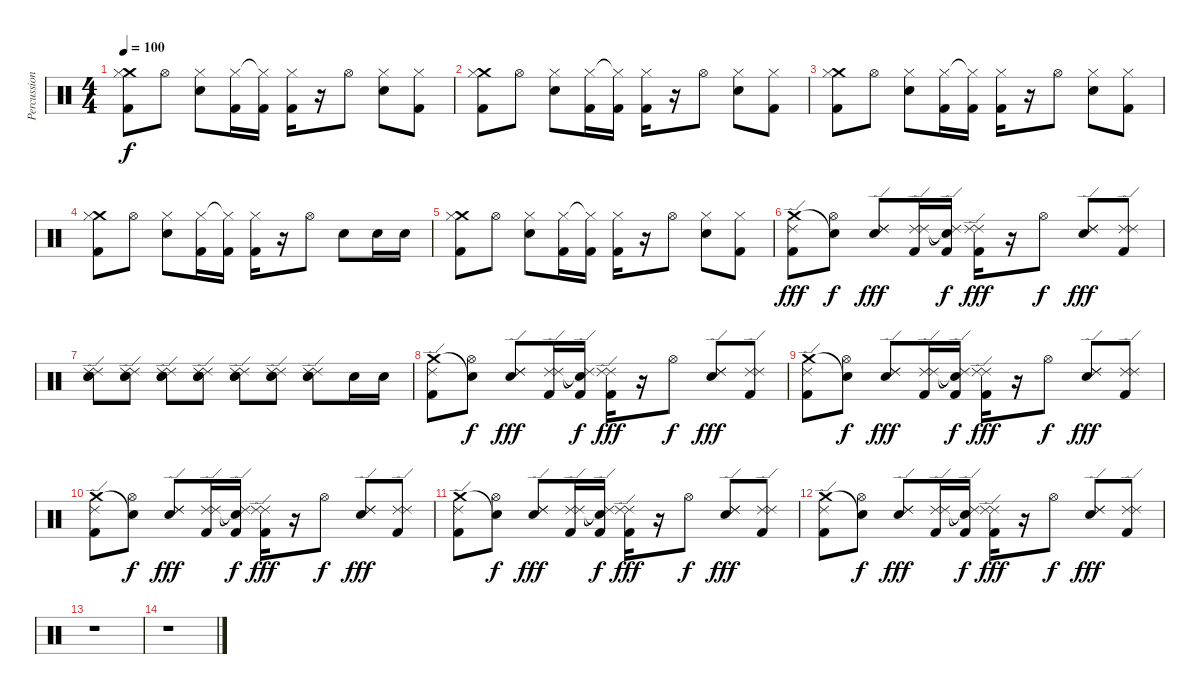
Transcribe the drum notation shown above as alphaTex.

\track ("Percussions" "Percussion") {instrument percussion}
\staff {score}
\articulation defaults
\ts (4 4)
\tempo 100
\clef neutral
\ks c
("Crash medium (hit)" "Hi-Hat (closed)" "Kick (hit) 2").8{dy f} "Hi-Hat (open)".8 ("Hi-Hat (closed)" "Snare (hit) 2").8 ("Hi-Hat (closed)" "Kick (hit) 2").16 ("Hi-Hat (closed)"{t} "Kick (hit) 2").16 ("Hi-Hat (closed)" "Kick (hit) 2").16 r.16 "Hi-Hat (open)".8 ("Hi-Hat (closed)" "Snare (hit) 2").8 ("Hi-Hat (closed)" "Kick (hit) 2").8 |
("Crash medium (hit)" "Hi-Hat (closed)" "Kick (hit) 2").8 "Hi-Hat (open)".8 ("Hi-Hat (closed)" "Snare (hit) 2").8 ("Hi-Hat (closed)" "Kick (hit) 2").16 ("Hi-Hat (closed)"{t} "Kick (hit) 2").16 ("Hi-Hat (closed)" "Kick (hit) 2").16 r.16 "Hi-Hat (open)".8 ("Hi-Hat (closed)" "Snare (hit) 2").8 ("Hi-Hat (closed)" "Kick (hit) 2").8 |
("Crash medium (hit)" "Hi-Hat (closed)" "Kick (hit) 2").8 "Hi-Hat (open)".8 ("Hi-Hat (closed)" "Snare (hit) 2").8 ("Hi-Hat (closed)" "Kick (hit) 2").16 ("Hi-Hat (closed)"{t} "Kick (hit) 2").16 ("Hi-Hat (closed)" "Kick (hit) 2").16 r.16 "Hi-Hat (open)".8 ("Hi-Hat (closed)" "Snare (hit) 2").8 ("Hi-Hat (closed)" "Kick (hit) 2").8 |
("Crash medium (hit)" "Hi-Hat (closed)" "Kick (hit) 2").8 "Hi-Hat (open)".8 ("Hi-Hat (closed)" "Snare (hit) 2").8 ("Hi-Hat (closed)" "Kick (hit) 2").16 ("Hi-Hat (closed)"{t} "Kick (hit) 2").16 ("Hi-Hat (closed)" "Kick (hit) 2").16 r.16 "Hi-Hat (open)".8 "Snare (hit) 2".8 "Snare (hit) 2".16 "Snare (hit) 2".16 |
("Crash medium (hit)" "Hi-Hat (closed)" "Kick (hit) 2").8 "Hi-Hat (open)".8 ("Hi-Hat (closed)" "Snare (hit) 2").8 ("Hi-Hat (closed)" "Kick (hit) 2").16 ("Hi-Hat (closed)"{t} "Kick (hit) 2").16 ("Hi-Hat (closed)" "Kick (hit) 2").16 r.16 "Hi-Hat (open)".8 ("Hi-Hat (closed)" "Snare (hit) 2").8 ("Hi-Hat (closed)" "Kick (hit) 2").8 |
("Crash medium (hit)" "Ride (edge) 2" "Kick (hit) 2").8{dy fff} ("Snare (hit)"{t} "Hi-Hat (open)").8{dy f} ("Ride (edge) 2" "Ride (edge) 2" "Snare (hit) 2").8{dy fff} ("Ride (edge) 2" "Ride (edge) 2" "Kick (hit) 2").16 ("Snare (hit)"{t} "Ride (edge) 2"{t} "Kick (hit) 2").16{dy f} ("Ride (edge) 2" "Ride (edge) 2" "Kick (hit) 2").16{dy fff} r.16 "Hi-Hat (open)".8{dy f} ("Ride (edge) 2" "Ride (edge) 2" "Snare (hit) 2").8{dy fff} ("Ride (edge) 2" "Ride (edge) 2" "Kick (hit) 2").8 |
("Ride (edge) 2" "Ride (edge) 2" "Snare (hit) 2" "Snare (hit) 2").8{volume 9} ("Ride (edge) 2" "Ride (edge) 2" "Snare (hit) 2" "Snare (hit) 2").8{volume 16} ("Ride (edge) 2" "Ride (edge) 2" "Snare (hit) 2" "Snare (hit) 2").8 ("Ride (edge) 2" "Ride (edge) 2" "Snare (hit) 2" "Snare (hit) 2").8 ("Ride (edge) 2" "Ride (edge) 2" "Snare (hit) 2" "Snare (hit) 2").8 ("Ride (edge) 2" "Ride (edge) 2" "Snare (hit) 2" "Snare (hit) 2").8 ("Ride (edge) 2" "Ride (edge) 2" "Snare (hit) 2" "Snare (hit) 2").8 "Snare (hit) 2".16 "Snare (hit) 2".16 |
("Crash medium (hit)" "Ride (edge) 2" "Kick (hit) 2").8 ("Snare (hit)"{t} "Hi-Hat (open)").8{dy f} ("Ride (edge) 2" "Ride (edge) 2" "Snare (hit) 2").8{dy fff} ("Ride (edge) 2" "Ride (edge) 2" "Kick (hit) 2").16 ("Snare (hit)"{t} "Ride (edge) 2"{t} "Kick (hit) 2").16{dy f} ("Ride (edge) 2" "Ride (edge) 2" "Kick (hit) 2").16{dy fff} r.16 "Hi-Hat (open)".8{dy f} ("Ride (edge) 2" "Ride (edge) 2" "Snare (hit) 2").8{dy fff} ("Ride (edge) 2" "Ride (edge) 2" "Kick (hit) 2").8 |
("Crash medium (hit)" "Ride (edge) 2" "Kick (hit) 2").8 ("Snare (hit)"{t} "Hi-Hat (open)").8{dy f} ("Ride (edge) 2" "Ride (edge) 2" "Snare (hit) 2").8{dy fff} ("Ride (edge) 2" "Ride (edge) 2" "Kick (hit) 2").16 ("Snare (hit)"{t} "Ride (edge) 2"{t} "Kick (hit) 2").16{dy f} ("Ride (edge) 2" "Ride (edge) 2" "Kick (hit) 2").16{dy fff} r.16 "Hi-Hat (open)".8{dy f} ("Ride (edge) 2" "Ride (edge) 2" "Snare (hit) 2").8{dy fff} ("Ride (edge) 2" "Ride (edge) 2" "Kick (hit) 2").8 |
("Crash medium (hit)" "Ride (edge) 2" "Kick (hit) 2").8 ("Snare (hit)"{t} "Hi-Hat (open)").8{dy f} ("Ride (edge) 2" "Ride (edge) 2" "Snare (hit) 2").8{dy fff} ("Ride (edge) 2" "Ride (edge) 2" "Kick (hit) 2").16 ("Snare (hit)"{t} "Ride (edge) 2"{t} "Kick (hit) 2").16{dy f} ("Ride (edge) 2" "Ride (edge) 2" "Kick (hit) 2").16{dy fff} r.16 "Hi-Hat (open)".8{dy f} ("Ride (edge) 2" "Ride (edge) 2" "Snare (hit) 2").8{dy fff} ("Ride (edge) 2" "Ride (edge) 2" "Kick (hit) 2").8 |
("Crash medium (hit)" "Ride (edge) 2" "Kick (hit) 2").8 ("Snare (hit)"{t} "Hi-Hat (open)").8{dy f} ("Ride (edge) 2" "Ride (edge) 2" "Snare (hit) 2").8{dy fff} ("Ride (edge) 2" "Ride (edge) 2" "Kick (hit) 2").16 ("Snare (hit)"{t} "Ride (edge) 2"{t} "Kick (hit) 2").16{dy f} ("Ride (edge) 2" "Ride (edge) 2" "Kick (hit) 2").16{dy fff} r.16 "Hi-Hat (open)".8{dy f} ("Ride (edge) 2" "Ride (edge) 2" "Snare (hit) 2").8{dy fff} ("Ride (edge) 2" "Ride (edge) 2" "Kick (hit) 2").8 |
("Crash medium (hit)" "Ride (edge) 2" "Kick (hit) 2").8 ("Snare (hit)"{t} "Hi-Hat (open)").8{dy f} ("Ride (edge) 2" "Ride (edge) 2" "Snare (hit) 2").8{dy fff} ("Ride (edge) 2" "Ride (edge) 2" "Kick (hit) 2").16 ("Snare (hit)"{t} "Ride (edge) 2"{t} "Kick (hit) 2").16{dy f} ("Ride (edge) 2" "Ride (edge) 2" "Kick (hit) 2").16{dy fff} r.16 "Hi-Hat (open)".8{dy f} ("Ride (edge) 2" "Ride (edge) 2" "Snare (hit) 2").8{dy fff} ("Ride (edge) 2" "Ride (edge) 2" "Kick (hit) 2").8 |
r.1 |
r.1
